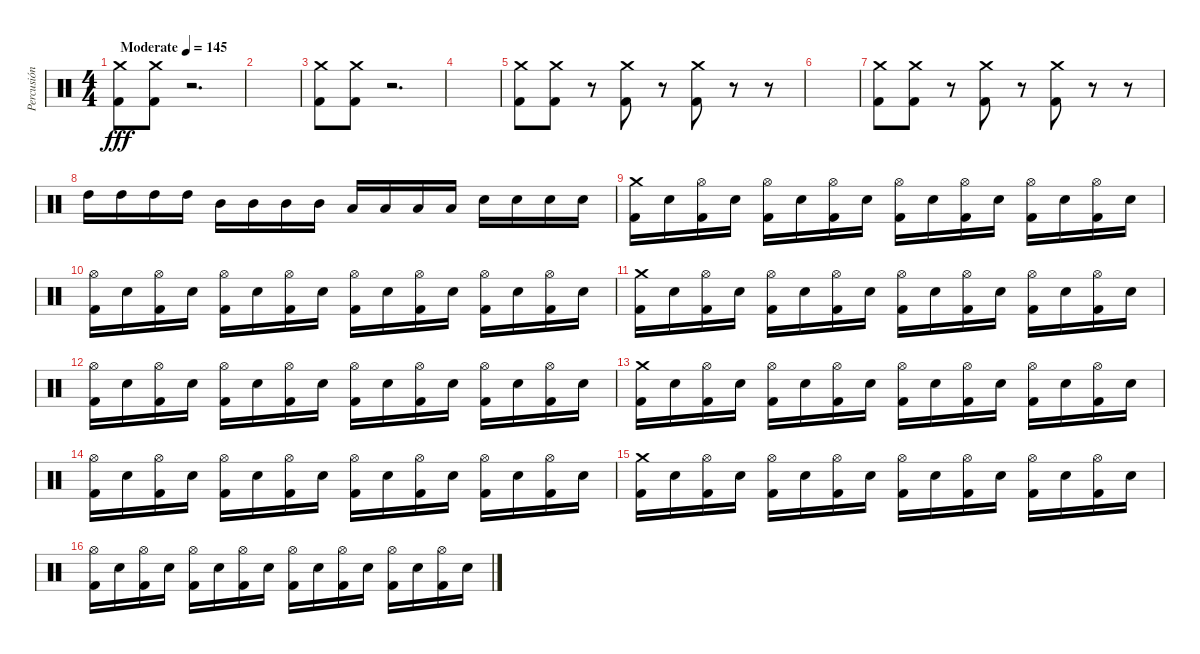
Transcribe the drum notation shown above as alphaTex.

\track ("Percusión" "Percusión") {instrument percussion}
\staff {score}
\articulation defaults
\ts (4 4)
\tempo (145 "Moderate")
\clef neutral
\ks c
("Crash medium (hit)" "Kick (hit) 2").8{dy fff} ("Crash medium (hit)" "Kick (hit) 2").8 r.2{d} |
|
("Crash medium (hit)" "Kick (hit) 2").8 ("Crash medium (hit)" "Kick (hit) 2").8 r.2{d} |
|
("Crash medium (hit)" "Kick (hit) 2").8 ("Crash medium (hit)" "Kick (hit) 2").8 r.8 ("Crash medium (hit)" "Kick (hit) 2").8 r.8 ("Crash medium (hit)" "Kick (hit) 2").8 r.8 r.8 |
|
("Crash medium (hit)" "Kick (hit) 2").8 ("Crash medium (hit)" "Kick (hit) 2").8 r.8 ("Crash medium (hit)" "Kick (hit) 2").8 r.8 ("Crash medium (hit)" "Kick (hit) 2").8 r.8 r.8 |
"High Tom (hit)".16 "High Tom (hit)".16 "High Tom (hit)".16 "High Tom (hit)".16 "Mid Tom (hit)".16 "Mid Tom (hit)".16 "Mid Tom (hit)".16 "Mid Tom (hit)".16 "Low Tom (hit)".16 "Low Tom (hit)".16 "Low Tom (hit)".16 "Low Tom (hit)".16 "Snare (hit) 2".16 "Snare (hit) 2".16 "Snare (hit) 2".16 "Snare (hit) 2".16 |
("Crash medium (hit)" "Kick (hit) 2").16 "Snare (hit) 2".16 ("Hi-Hat (open)" "Kick (hit) 2").16 "Snare (hit) 2".16 ("Hi-Hat (open)" "Kick (hit) 2").16 "Snare (hit) 2".16 ("Hi-Hat (open)" "Kick (hit) 2").16 "Snare (hit) 2".16 ("Hi-Hat (open)" "Kick (hit) 2").16 "Snare (hit) 2".16 ("Hi-Hat (open)" "Kick (hit) 2").16 "Snare (hit) 2".16 ("Hi-Hat (open)" "Kick (hit) 2").16 "Snare (hit) 2".16 ("Hi-Hat (open)" "Kick (hit) 2").16 "Snare (hit) 2".16 |
("Hi-Hat (open)" "Kick (hit) 2").16 "Snare (hit) 2".16 ("Hi-Hat (open)" "Kick (hit) 2").16 "Snare (hit) 2".16 ("Hi-Hat (open)" "Kick (hit) 2").16 "Snare (hit) 2".16 ("Hi-Hat (open)" "Kick (hit) 2").16 "Snare (hit) 2".16 ("Hi-Hat (open)" "Kick (hit) 2").16 "Snare (hit) 2".16 ("Hi-Hat (open)" "Kick (hit) 2").16 "Snare (hit) 2".16 ("Hi-Hat (open)" "Kick (hit) 2").16 "Snare (hit) 2".16 ("Hi-Hat (open)" "Kick (hit) 2").16 "Snare (hit) 2".16 |
("Crash medium (hit)" "Kick (hit) 2").16 "Snare (hit) 2".16 ("Hi-Hat (open)" "Kick (hit) 2").16 "Snare (hit) 2".16 ("Hi-Hat (open)" "Kick (hit) 2").16 "Snare (hit) 2".16 ("Hi-Hat (open)" "Kick (hit) 2").16 "Snare (hit) 2".16 ("Hi-Hat (open)" "Kick (hit) 2").16 "Snare (hit) 2".16 ("Hi-Hat (open)" "Kick (hit) 2").16 "Snare (hit) 2".16 ("Hi-Hat (open)" "Kick (hit) 2").16 "Snare (hit) 2".16 ("Hi-Hat (open)" "Kick (hit) 2").16 "Snare (hit) 2".16 |
("Hi-Hat (open)" "Kick (hit) 2").16 "Snare (hit) 2".16 ("Hi-Hat (open)" "Kick (hit) 2").16 "Snare (hit) 2".16 ("Hi-Hat (open)" "Kick (hit) 2").16 "Snare (hit) 2".16 ("Hi-Hat (open)" "Kick (hit) 2").16 "Snare (hit) 2".16 ("Hi-Hat (open)" "Kick (hit) 2").16 "Snare (hit) 2".16 ("Hi-Hat (open)" "Kick (hit) 2").16 "Snare (hit) 2".16 ("Hi-Hat (open)" "Kick (hit) 2").16 "Snare (hit) 2".16 ("Hi-Hat (open)" "Kick (hit) 2").16 "Snare (hit) 2".16 |
("Crash medium (hit)" "Kick (hit) 2").16 "Snare (hit) 2".16 ("Hi-Hat (open)" "Kick (hit) 2").16 "Snare (hit) 2".16 ("Hi-Hat (open)" "Kick (hit) 2").16 "Snare (hit) 2".16 ("Hi-Hat (open)" "Kick (hit) 2").16 "Snare (hit) 2".16 ("Hi-Hat (open)" "Kick (hit) 2").16 "Snare (hit) 2".16 ("Hi-Hat (open)" "Kick (hit) 2").16 "Snare (hit) 2".16 ("Hi-Hat (open)" "Kick (hit) 2").16 "Snare (hit) 2".16 ("Hi-Hat (open)" "Kick (hit) 2").16 "Snare (hit) 2".16 |
("Hi-Hat (open)" "Kick (hit) 2").16 "Snare (hit) 2".16 ("Hi-Hat (open)" "Kick (hit) 2").16 "Snare (hit) 2".16 ("Hi-Hat (open)" "Kick (hit) 2").16 "Snare (hit) 2".16 ("Hi-Hat (open)" "Kick (hit) 2").16 "Snare (hit) 2".16 ("Hi-Hat (open)" "Kick (hit) 2").16 "Snare (hit) 2".16 ("Hi-Hat (open)" "Kick (hit) 2").16 "Snare (hit) 2".16 ("Hi-Hat (open)" "Kick (hit) 2").16 "Snare (hit) 2".16 ("Hi-Hat (open)" "Kick (hit) 2").16 "Snare (hit) 2".16 |
("Crash medium (hit)" "Kick (hit) 2").16 "Snare (hit) 2".16 ("Hi-Hat (open)" "Kick (hit) 2").16 "Snare (hit) 2".16 ("Hi-Hat (open)" "Kick (hit) 2").16 "Snare (hit) 2".16 ("Hi-Hat (open)" "Kick (hit) 2").16 "Snare (hit) 2".16 ("Hi-Hat (open)" "Kick (hit) 2").16 "Snare (hit) 2".16 ("Hi-Hat (open)" "Kick (hit) 2").16 "Snare (hit) 2".16 ("Hi-Hat (open)" "Kick (hit) 2").16 "Snare (hit) 2".16 ("Hi-Hat (open)" "Kick (hit) 2").16 "Snare (hit) 2".16 |
("Hi-Hat (open)" "Kick (hit) 2").16 "Snare (hit) 2".16 ("Hi-Hat (open)" "Kick (hit) 2").16 "Snare (hit) 2".16 ("Hi-Hat (open)" "Kick (hit) 2").16 "Snare (hit) 2".16 ("Hi-Hat (open)" "Kick (hit) 2").16 "Snare (hit) 2".16 ("Hi-Hat (open)" "Kick (hit) 2").16 "Snare (hit) 2".16 ("Hi-Hat (open)" "Kick (hit) 2").16 "Snare (hit) 2".16 ("Hi-Hat (open)" "Kick (hit) 2").16 "Snare (hit) 2".16 ("Hi-Hat (open)" "Kick (hit) 2").16 "Snare (hit) 2".16
